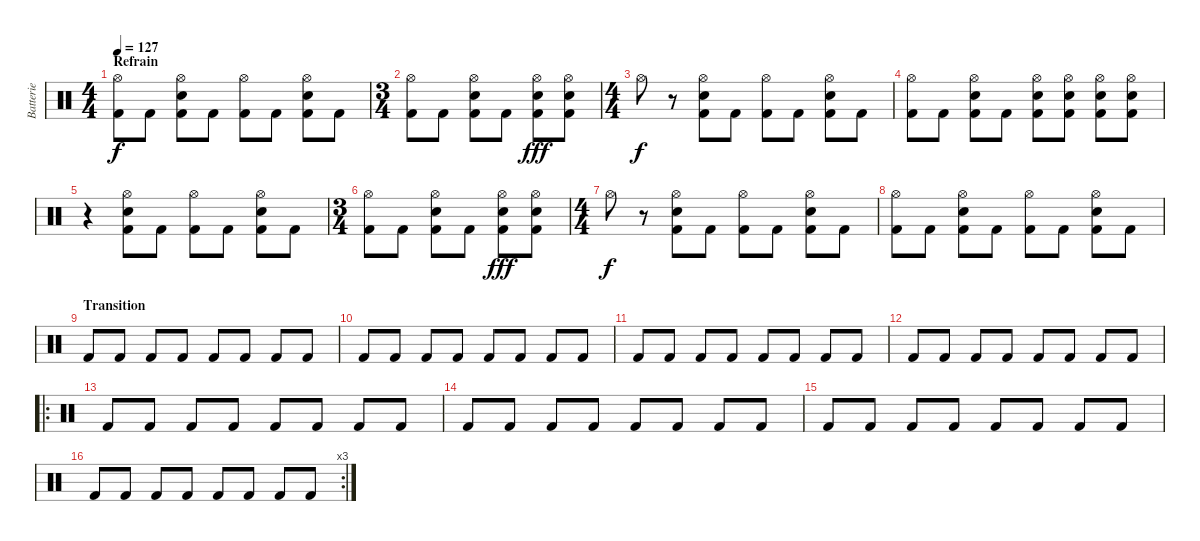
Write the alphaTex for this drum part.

\track ("Batterie" "Batterie") {instrument percussion}
\staff {score}
\articulation defaults
\ts (4 4)
\section ("" "Refrain ")
\tempo 127
\clef neutral
\ks c
("Hi-Hat (open)" "Kick (hit) 2").8{dy f} "Kick (hit) 2".8 ("Hi-Hat (open)" "Electric Snare (hit)" "Kick (hit) 2").8 "Kick (hit) 2".8 ("Hi-Hat (open)" "Kick (hit) 2").8 "Kick (hit) 2".8 ("Hi-Hat (open)" "Electric Snare (hit)" "Kick (hit) 2").8 "Kick (hit) 2".8 |
\ts (3 4)
("Hi-Hat (open)" "Kick (hit) 2").8 "Kick (hit) 2".8 ("Hi-Hat (open)" "Electric Snare (hit)" "Kick (hit) 2").8 "Kick (hit) 2".8 ("Hi-Hat (open)" "Electric Snare (hit)" "Kick (hit) 2").8{dy fff} ("Hi-Hat (open)" "Electric Snare (hit)" "Kick (hit) 2").8 |
\ts (4 4)
"Hi-Hat (open)".8{dy f} r.8 ("Hi-Hat (open)" "Electric Snare (hit)" "Kick (hit) 2").8 "Kick (hit) 2".8 ("Hi-Hat (open)" "Kick (hit) 2").8 "Kick (hit) 2".8 ("Hi-Hat (open)" "Electric Snare (hit)" "Kick (hit) 2").8 "Kick (hit) 2".8 |
("Hi-Hat (open)" "Kick (hit) 2").8 "Kick (hit) 2".8 ("Hi-Hat (open)" "Electric Snare (hit)" "Kick (hit) 2").8 "Kick (hit) 2".8 ("Hi-Hat (open)" "Electric Snare (hit)" "Kick (hit) 2").8 ("Hi-Hat (open)" "Electric Snare (hit)" "Kick (hit) 2").8 ("Hi-Hat (open)" "Electric Snare (hit)" "Kick (hit) 2").8 ("Hi-Hat (open)" "Electric Snare (hit)" "Kick (hit) 2").8 |
r.4 ("Hi-Hat (open)" "Electric Snare (hit)" "Kick (hit) 2").8 "Kick (hit) 2".8 ("Hi-Hat (open)" "Kick (hit) 2").8 "Kick (hit) 2".8 ("Hi-Hat (open)" "Electric Snare (hit)" "Kick (hit) 2").8 "Kick (hit) 2".8 |
\ts (3 4)
("Hi-Hat (open)" "Kick (hit) 2").8 "Kick (hit) 2".8 ("Hi-Hat (open)" "Electric Snare (hit)" "Kick (hit) 2").8 "Kick (hit) 2".8 ("Hi-Hat (open)" "Electric Snare (hit)" "Kick (hit) 2").8{dy fff} ("Hi-Hat (open)" "Electric Snare (hit)" "Kick (hit) 2").8 |
\ts (4 4)
"Hi-Hat (open)".8{dy f} r.8 ("Hi-Hat (open)" "Electric Snare (hit)" "Kick (hit) 2").8 "Kick (hit) 2".8 ("Hi-Hat (open)" "Kick (hit) 2").8 "Kick (hit) 2".8 ("Hi-Hat (open)" "Electric Snare (hit)" "Kick (hit) 2").8 "Kick (hit) 2".8 |
("Hi-Hat (open)" "Kick (hit) 2").8 "Kick (hit) 2".8 ("Hi-Hat (open)" "Electric Snare (hit)" "Kick (hit) 2").8 "Kick (hit) 2".8 ("Hi-Hat (open)" "Kick (hit) 2").8 "Kick (hit) 2".8 ("Hi-Hat (open)" "Electric Snare (hit)" "Kick (hit) 2").8 "Kick (hit) 2".8 |
\section ("" "Transition")
"Kick (hit) 2".8{volume 8} "Kick (hit) 2".8 "Kick (hit) 2".8 "Kick (hit) 2".8 "Kick (hit) 2".8 "Kick (hit) 2".8 "Kick (hit) 2".8 "Kick (hit) 2".8 |
"Kick (hit) 2".8 "Kick (hit) 2".8 "Kick (hit) 2".8 "Kick (hit) 2".8 "Kick (hit) 2".8 "Kick (hit) 2".8 "Kick (hit) 2".8 "Kick (hit) 2".8 |
"Kick (hit) 2".8 "Kick (hit) 2".8 "Kick (hit) 2".8 "Kick (hit) 2".8 "Kick (hit) 2".8 "Kick (hit) 2".8 "Kick (hit) 2".8 "Kick (hit) 2".8 |
"Kick (hit) 2".8 "Kick (hit) 2".8 "Kick (hit) 2".8 "Kick (hit) 2".8 "Kick (hit) 2".8 "Kick (hit) 2".8 "Kick (hit) 2".8 "Kick (hit) 2".8 |
\ro "Kick (hit) 2".8 "Kick (hit) 2".8 "Kick (hit) 2".8 "Kick (hit) 2".8 "Kick (hit) 2".8 "Kick (hit) 2".8 "Kick (hit) 2".8 "Kick (hit) 2".8
|
"Kick (hit) 2".8 "Kick (hit) 2".8 "Kick (hit) 2".8 "Kick (hit) 2".8 "Kick (hit) 2".8 "Kick (hit) 2".8 "Kick (hit) 2".8 "Kick (hit) 2".8 |
"Kick (hit) 2".8 "Kick (hit) 2".8 "Kick (hit) 2".8 "Kick (hit) 2".8 "Kick (hit) 2".8 "Kick (hit) 2".8 "Kick (hit) 2".8 "Kick (hit) 2".8 |
\rc 3 "Kick (hit) 2".8 "Kick (hit) 2".8 "Kick (hit) 2".8 "Kick (hit) 2".8 "Kick (hit) 2".8 "Kick (hit) 2".8 "Kick (hit) 2".8 "Kick (hit) 2".8
